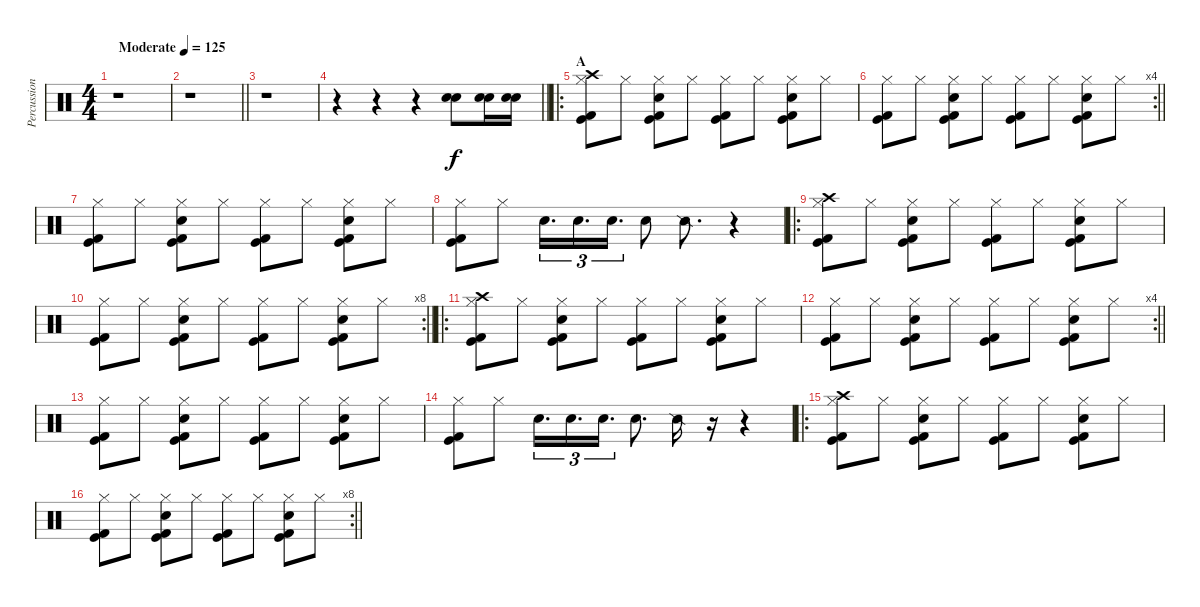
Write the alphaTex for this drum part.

\track ("Percussion" "Percussion") {instrument percussion}
\staff {score}
\articulation defaults
\ts (4 4)
\tempo (125 "Moderate")
\clef neutral
\ks c
r.1{dy f} |
\barLineRight lightlight
r.1 |
r.1 |
\barLineRight lightlight
r.4 r.4 r.4 ("Snare (hit) 2" "Electric Snare (hit)").8 ("Snare (hit) 2" "Electric Snare (hit)").16 ("Snare (hit) 2" "Electric Snare (hit)").16 |
\ro
\section ("" "A")
("Hi-Hat (closed)" "Crash high (hit)" "Kick (hit)" "Kick (hit) 2").8 "Hi-Hat (closed)".8 ("Hi-Hat (closed)" "Snare (hit) 2" "Kick (hit)" "Kick (hit) 2").8 "Hi-Hat (closed)".8 ("Hi-Hat (closed)" "Kick (hit)" "Kick (hit) 2").8 "Hi-Hat (closed)".8 ("Hi-Hat (closed)" "Snare (hit) 2" "Kick (hit)" "Kick (hit) 2").8 "Hi-Hat (closed)".8 |
\rc 4
\barLineRight lightlight
("Hi-Hat (closed)" "Kick (hit)" "Kick (hit) 2").8 "Hi-Hat (closed)".8 ("Hi-Hat (closed)" "Snare (hit) 2" "Kick (hit)" "Kick (hit) 2").8 "Hi-Hat (closed)".8 ("Hi-Hat (closed)" "Kick (hit)" "Kick (hit) 2").8 "Hi-Hat (closed)".8 ("Hi-Hat (closed)" "Snare (hit) 2" "Kick (hit)" "Kick (hit) 2").8 "Hi-Hat (closed)".8 |
("Hi-Hat (closed)" "Kick (hit)" "Kick (hit) 2").8 "Hi-Hat (closed)".8 ("Hi-Hat (closed)" "Snare (hit) 2" "Kick (hit)" "Kick (hit) 2").8 "Hi-Hat (closed)".8 ("Hi-Hat (closed)" "Kick (hit)" "Kick (hit) 2").8 "Hi-Hat (closed)".8 ("Hi-Hat (closed)" "Snare (hit) 2" "Kick (hit)" "Kick (hit) 2").8 "Hi-Hat (closed)".8 |
("Hi-Hat (closed)" "Kick (hit)" "Kick (hit) 2").8 "Hi-Hat (closed)".8 "Snare (hit) 2".16{d tu (3 2) beam merge} "Snare (hit) 2".16{d tu (3 2) beam merge} "Snare (hit) 2".16{d tu (3 2)} "Snare (hit) 2".8 "Snare (side stick) 2".8{d} r.4 |
\ro
("Hi-Hat (closed)" "Crash high (hit)" "Kick (hit)" "Kick (hit) 2").8 "Hi-Hat (closed)".8 ("Hi-Hat (closed)" "Snare (hit) 2" "Kick (hit)" "Kick (hit) 2").8 "Hi-Hat (closed)".8 ("Hi-Hat (closed)" "Kick (hit)" "Kick (hit) 2").8 "Hi-Hat (closed)".8 ("Hi-Hat (closed)" "Snare (hit) 2" "Kick (hit)" "Kick (hit) 2").8 "Hi-Hat (closed)".8 |
\rc 8
\barLineRight lightlight
("Hi-Hat (closed)" "Kick (hit)" "Kick (hit) 2").8 "Hi-Hat (closed)".8 ("Hi-Hat (closed)" "Snare (hit) 2" "Kick (hit)" "Kick (hit) 2").8 "Hi-Hat (closed)".8 ("Hi-Hat (closed)" "Kick (hit)" "Kick (hit) 2").8 "Hi-Hat (closed)".8 ("Hi-Hat (closed)" "Snare (hit) 2" "Kick (hit)" "Kick (hit) 2").8 "Hi-Hat (closed)".8 |
\ro
("Hi-Hat (closed)" "Crash high (hit)" "Kick (hit)" "Kick (hit) 2").8 "Hi-Hat (closed)".8 ("Hi-Hat (closed)" "Snare (hit) 2" "Kick (hit)" "Kick (hit) 2").8 "Hi-Hat (closed)".8 ("Hi-Hat (closed)" "Kick (hit)" "Kick (hit) 2").8 "Hi-Hat (closed)".8 ("Hi-Hat (closed)" "Snare (hit) 2" "Kick (hit)" "Kick (hit) 2").8 "Hi-Hat (closed)".8 |
\rc 4
\barLineRight lightlight
("Hi-Hat (closed)" "Kick (hit)" "Kick (hit) 2").8 "Hi-Hat (closed)".8 ("Hi-Hat (closed)" "Snare (hit) 2" "Kick (hit)" "Kick (hit) 2").8 "Hi-Hat (closed)".8 ("Hi-Hat (closed)" "Kick (hit)" "Kick (hit) 2").8 "Hi-Hat (closed)".8 ("Hi-Hat (closed)" "Snare (hit) 2" "Kick (hit)" "Kick (hit) 2").8 "Hi-Hat (closed)".8 |
("Hi-Hat (closed)" "Kick (hit)" "Kick (hit) 2").8 "Hi-Hat (closed)".8 ("Hi-Hat (closed)" "Snare (hit) 2" "Kick (hit)" "Kick (hit) 2").8 "Hi-Hat (closed)".8 ("Hi-Hat (closed)" "Kick (hit)" "Kick (hit) 2").8 "Hi-Hat (closed)".8 ("Hi-Hat (closed)" "Snare (hit) 2" "Kick (hit)" "Kick (hit) 2").8 "Hi-Hat (closed)".8 |
("Hi-Hat (closed)" "Kick (hit)" "Kick (hit) 2").8 "Hi-Hat (closed)".8 "Snare (hit) 2".16{d tu (3 2) beam merge} "Snare (hit) 2".16{d tu (3 2) beam merge} "Snare (hit) 2".16{d tu (3 2)} "Snare (hit) 2".8{d} "Snare (side stick) 2".16 r.16 r.4 |
\ro
("Hi-Hat (closed)" "Crash high (hit)" "Kick (hit)" "Kick (hit) 2").8 "Hi-Hat (closed)".8 ("Hi-Hat (closed)" "Snare (hit) 2" "Kick (hit)" "Kick (hit) 2").8 "Hi-Hat (closed)".8 ("Hi-Hat (closed)" "Kick (hit)" "Kick (hit) 2").8 "Hi-Hat (closed)".8 ("Hi-Hat (closed)" "Snare (hit) 2" "Kick (hit)" "Kick (hit) 2").8 "Hi-Hat (closed)".8 |
\rc 8
\barLineRight lightlight
("Hi-Hat (closed)" "Kick (hit)" "Kick (hit) 2").8 "Hi-Hat (closed)".8 ("Hi-Hat (closed)" "Snare (hit) 2" "Kick (hit)" "Kick (hit) 2").8 "Hi-Hat (closed)".8 ("Hi-Hat (closed)" "Kick (hit)" "Kick (hit) 2").8 "Hi-Hat (closed)".8 ("Hi-Hat (closed)" "Snare (hit) 2" "Kick (hit)" "Kick (hit) 2").8 "Hi-Hat (closed)".8
